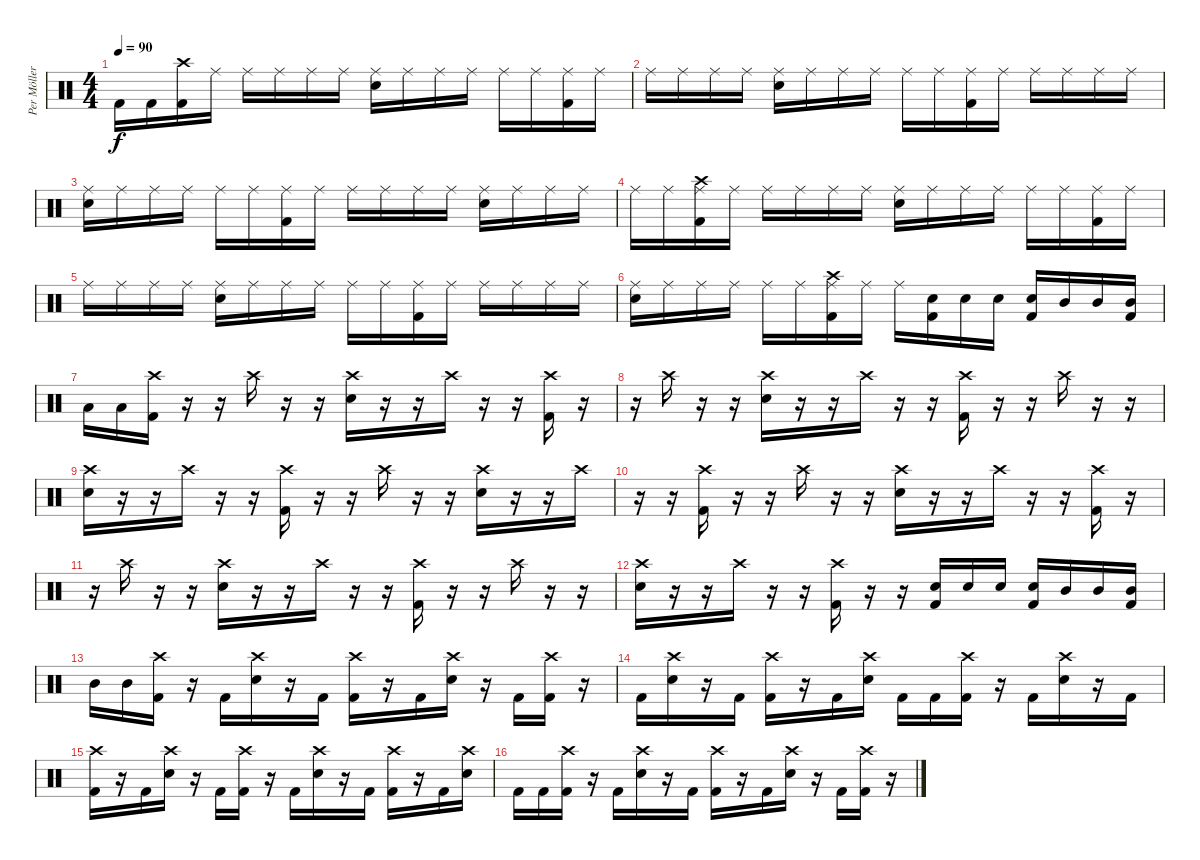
\track ("Per Möller-Jensen" "Per Möller") {instrument percussion}
\staff {score}
\articulation defaults
\ts (4 4)
\tempo 90
\clef neutral
\ks c "Kick (hit) 2".16{dy f} "Kick (hit) 2".16
("Crash high (hit)" "Kick (hit) 2").16 "Ride (middle)".16 "Ride (middle)".16 "Ride (middle)".16 "Ride (middle)".16 "Ride (middle)".16 ("Ride (middle)" "Snare (hit) 2").16 "Ride (middle)".16 "Ride (middle)".16 "Ride (middle)".16 "Ride (middle)".16 "Ride (middle)".16 ("Ride (middle)" "Kick (hit) 2").16 "Ride (middle)".16 |
"Ride (middle)".16 "Ride (middle)".16 "Ride (middle)".16 "Ride (middle)".16 ("Ride (middle)" "Snare (hit) 2").16 "Ride (middle)".16 "Ride (middle)".16 "Ride (middle)".16 "Ride (middle)".16 "Ride (middle)".16 ("Ride (middle)" "Kick (hit) 2").16 "Ride (middle)".16 "Ride (middle)".16 "Ride (middle)".16 "Ride (middle)".16 "Ride (middle)".16 |
("Ride (middle)" "Snare (hit) 2").16 "Ride (middle)".16 "Ride (middle)".16 "Ride (middle)".16 "Ride (middle)".16 "Ride (middle)".16 ("Ride (middle)" "Kick (hit) 2").16 "Ride (middle)".16 "Ride (middle)".16 "Ride (middle)".16 "Ride (middle)".16 "Ride (middle)".16 ("Ride (middle)" "Snare (hit) 2").16 "Ride (middle)".16 "Ride (middle)".16 "Ride (middle)".16 |
"Ride (middle)".16 "Ride (middle)".16 ("Crash high (hit)" "Ride (middle)" "Kick (hit) 2").16 "Ride (middle)".16 "Ride (middle)".16 "Ride (middle)".16 "Ride (middle)".16 "Ride (middle)".16 ("Ride (middle)" "Snare (hit) 2").16 "Ride (middle)".16 "Ride (middle)".16 "Ride (middle)".16 "Ride (middle)".16 "Ride (middle)".16 ("Ride (middle)" "Kick (hit) 2").16 "Ride (middle)".16 |
"Ride (middle)".16 "Ride (middle)".16 "Ride (middle)".16 "Ride (middle)".16 ("Ride (middle)" "Snare (hit) 2").16 "Ride (middle)".16 "Ride (middle)".16 "Ride (middle)".16 "Ride (middle)".16 "Ride (middle)".16 ("Ride (middle)" "Kick (hit) 2").16 "Ride (middle)".16 "Ride (middle)".16 "Ride (middle)".16 "Ride (middle)".16 "Ride (middle)".16 |
("Ride (middle)" "Snare (hit) 2").16 "Ride (middle)".16 "Ride (middle)".16 "Ride (middle)".16 "Ride (middle)".16 "Ride (middle)".16 ("Crash high (hit)" "Ride (middle)" "Kick (hit) 2").16 "Ride (middle)".16 "Ride (middle)".16 ("Snare (hit) 2" "Kick (hit) 2").16 "Snare (hit) 2".16 "Snare (hit) 2".16 ("Snare (hit) 2" "Kick (hit) 2").16 "Mid Tom (hit)".16 "Mid Tom (hit)".16 ("Mid Tom (hit)" "Kick (hit) 2").16 |
"Low Tom (hit)".16 "Low Tom (hit)".16 ("Crash high (hit)" "Kick (hit) 2").16 r.16 r.16 "Crash high (hit)".16 r.16 r.16 ("Crash high (hit)" "Snare (hit) 2").16 r.16 r.16 "Crash high (hit)".16 r.16 r.16 ("Crash high (hit)" "Kick (hit) 2").16 r.16 |
r.16 "Crash high (hit)".16 r.16 r.16 ("Crash high (hit)" "Snare (hit) 2").16 r.16 r.16 "Crash high (hit)".16 r.16 r.16 ("Crash high (hit)" "Kick (hit) 2").16 r.16 r.16 "Crash high (hit)".16 r.16 r.16 |
("Crash high (hit)" "Snare (hit) 2").16 r.16 r.16 "Crash high (hit)".16 r.16 r.16 ("Crash high (hit)" "Kick (hit) 2").16 r.16 r.16 "Crash high (hit)".16 r.16 r.16 ("Crash high (hit)" "Snare (hit) 2").16 r.16 r.16 "Crash high (hit)".16 |
r.16 r.16 ("Crash high (hit)" "Kick (hit) 2").16 r.16 r.16 "Crash high (hit)".16 r.16 r.16 ("Crash high (hit)" "Snare (hit) 2").16 r.16 r.16 "Crash high (hit)".16 r.16 r.16 ("Crash high (hit)" "Kick (hit) 2").16 r.16 |
r.16 "Crash high (hit)".16 r.16 r.16 ("Crash high (hit)" "Snare (hit) 2").16 r.16 r.16 "Crash high (hit)".16 r.16 r.16 ("Crash high (hit)" "Kick (hit) 2").16 r.16 r.16 "Crash high (hit)".16 r.16 r.16 |
("Crash high (hit)" "Snare (hit) 2").16 r.16 r.16 "Crash high (hit)".16 r.16 r.16 ("Crash high (hit)" "Kick (hit) 2").16 r.16 r.16 ("Snare (hit) 2" "Kick (hit) 2").16 "Snare (hit) 2".16 "Snare (hit) 2".16 ("Snare (hit) 2" "Kick (hit) 2").16 "Mid Tom (hit)".16 "Mid Tom (hit)".16 ("Mid Tom (hit)" "Kick (hit) 2").16 |
"Mid Tom (hit)".16 "Mid Tom (hit)".16 ("Crash high (hit)" "Kick (hit) 2").16 r.16 "Kick (hit) 2".16 ("Crash high (hit)" "Snare (hit) 2").16 r.16 "Kick (hit) 2".16 ("Crash high (hit)" "Kick (hit) 2").16 r.16 "Kick (hit) 2".16 ("Crash high (hit)" "Snare (hit) 2").16 r.16 "Kick (hit) 2".16 ("Crash high (hit)" "Kick (hit) 2").16 r.16 |
"Kick (hit) 2".16 ("Crash high (hit)" "Snare (hit) 2").16 r.16 "Kick (hit) 2".16 ("Crash high (hit)" "Kick (hit) 2").16 r.16 "Kick (hit) 2".16 ("Crash high (hit)" "Snare (hit) 2").16 "Kick (hit) 2".16 "Kick (hit) 2".16 ("Crash high (hit)" "Kick (hit) 2").16 r.16 "Kick (hit) 2".16 ("Crash high (hit)" "Snare (hit) 2").16 r.16 "Kick (hit) 2".16 |
("Crash high (hit)" "Kick (hit) 2").16 r.16 "Kick (hit) 2".16 ("Crash high (hit)" "Snare (hit) 2").16 r.16 "Kick (hit) 2".16 ("Crash high (hit)" "Kick (hit) 2").16 r.16 "Kick (hit) 2".16 ("Crash high (hit)" "Snare (hit) 2").16 r.16 "Kick (hit) 2".16 ("Crash high (hit)" "Kick (hit) 2").16 r.16 "Kick (hit) 2".16 ("Crash high (hit)" "Snare (hit) 2").16 |
"Kick (hit) 2".16 "Kick (hit) 2".16 ("Crash high (hit)" "Kick (hit) 2").16 r.16 "Kick (hit) 2".16 ("Crash high (hit)" "Snare (hit) 2").16 r.16 "Kick (hit) 2".16 ("Crash high (hit)" "Kick (hit) 2").16 r.16 "Kick (hit) 2".16 ("Crash high (hit)" "Snare (hit) 2").16 r.16 "Kick (hit) 2".16 ("Crash high (hit)" "Kick (hit) 2").16 r.16
